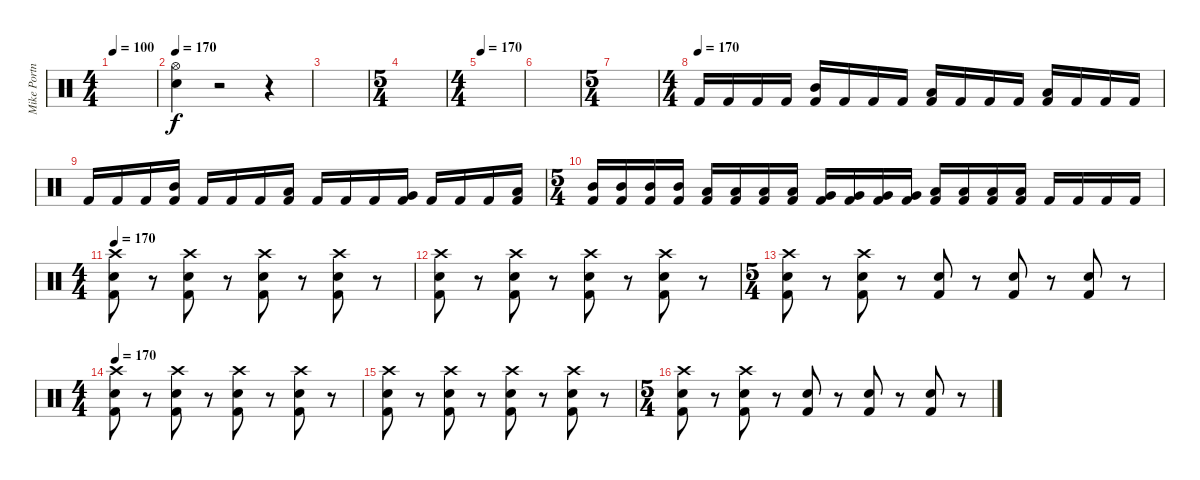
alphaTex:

\track ("Mike Portnoy" "Mike Portn") {instrument percussion}
\staff {score}
\articulation defaults
\ts (4 4)
\tempo 100
\clef neutral
\ks c
|
\tempo 170
("Hi-Hat (open)" "Electric Snare (hit)").4 r.2 r.4 |
|
\ts (5 4)
|
\ts (4 4)
\tempo 170
|
|
\ts (5 4)
|
\ts (4 4)
\tempo (170)
"Kick (hit) 2".16 "Kick (hit) 2".16 "Kick (hit) 2".16 "Kick (hit) 2".16 ("Mid Tom (hit)" "Kick (hit) 2").16 "Kick (hit) 2".16 "Kick (hit) 2".16 "Kick (hit) 2".16 ("Low Tom (hit)" "Kick (hit) 2").16 "Kick (hit) 2".16 "Kick (hit) 2".16 "Kick (hit) 2".16 ("Low Floor Tom (hit)" "Kick (hit) 2").16 "Kick (hit) 2".16 "Kick (hit) 2".16 "Kick (hit) 2".16 |
"Kick (hit) 2".16 "Kick (hit) 2".16 "Kick (hit) 2".16 ("Mid Tom (hit)" "Kick (hit) 2").16 "Kick (hit) 2".16 "Kick (hit) 2".16 "Kick (hit) 2".16 ("Low Tom (hit)" "Kick (hit) 2").16 "Kick (hit) 2".16 "Kick (hit) 2".16 "Kick (hit) 2".16 ("Very Low Tom (hit)" "Kick (hit) 2").16 "Kick (hit) 2".16 "Kick (hit) 2".16 "Kick (hit) 2".16 ("Low Floor Tom (hit)" "Kick (hit) 2").16 |
\ts (5 4)
("Mid Tom (hit)" "Kick (hit) 2").16 ("Mid Tom (hit)" "Kick (hit) 2").16 ("Mid Tom (hit)" "Kick (hit) 2").16 ("Mid Tom (hit)" "Kick (hit) 2").16 ("Low Tom (hit)" "Kick (hit) 2").16 ("Low Tom (hit)" "Kick (hit) 2").16 ("Low Tom (hit)" "Kick (hit) 2").16 ("Low Tom (hit)" "Kick (hit) 2").16 ("Very Low Tom (hit)" "Kick (hit) 2").16 ("Very Low Tom (hit)" "Kick (hit) 2").16 ("Very Low Tom (hit)" "Kick (hit) 2").16 ("Very Low Tom (hit)" "Kick (hit) 2").16 ("Low Floor Tom (hit)" "Kick (hit) 2").16 ("Low Floor Tom (hit)" "Kick (hit) 2").16 ("Low Floor Tom (hit)" "Kick (hit) 2").16 ("Low Floor Tom (hit)" "Kick (hit) 2").16 "Kick (hit) 2".16 "Kick (hit) 2".16 "Kick (hit) 2".16 "Kick (hit) 2".16 |
\ts (4 4)
\tempo 170
("Crash high (hit)" "Electric Snare (hit)" "Kick (hit) 2").8 r.8 ("Crash high (hit)" "Electric Snare (hit)" "Kick (hit) 2").8 r.8 ("Crash high (hit)" "Electric Snare (hit)" "Kick (hit) 2").8 r.8 ("Crash high (hit)" "Electric Snare (hit)" "Kick (hit) 2").8 r.8 |
("Crash high (hit)" "Electric Snare (hit)" "Kick (hit) 2").8 r.8 ("Crash high (hit)" "Electric Snare (hit)" "Kick (hit) 2").8 r.8 ("Crash high (hit)" "Electric Snare (hit)" "Kick (hit) 2").8 r.8 ("Crash high (hit)" "Electric Snare (hit)" "Kick (hit) 2").8 r.8 |
\ts (5 4)
("Crash high (hit)" "Electric Snare (hit)" "Kick (hit) 2").8 r.8 ("Crash high (hit)" "Electric Snare (hit)" "Kick (hit) 2").8 r.8 ("Electric Snare (hit)" "Kick (hit) 2").8 r.8 ("Electric Snare (hit)" "Kick (hit) 2").8 r.8 ("Electric Snare (hit)" "Kick (hit) 2").8 r.8 |
\ts (4 4)
\tempo 170
("Crash high (hit)" "Electric Snare (hit)" "Kick (hit) 2").8 r.8 ("Crash high (hit)" "Electric Snare (hit)" "Kick (hit) 2").8 r.8 ("Crash high (hit)" "Electric Snare (hit)" "Kick (hit) 2").8 r.8 ("Crash high (hit)" "Electric Snare (hit)" "Kick (hit) 2").8 r.8 |
("Crash high (hit)" "Electric Snare (hit)" "Kick (hit) 2").8 r.8 ("Crash high (hit)" "Electric Snare (hit)" "Kick (hit) 2").8 r.8 ("Crash high (hit)" "Electric Snare (hit)" "Kick (hit) 2").8 r.8 ("Crash high (hit)" "Electric Snare (hit)" "Kick (hit) 2").8 r.8 |
\ts (5 4)
("Crash high (hit)" "Electric Snare (hit)" "Kick (hit) 2").8 r.8 ("Crash high (hit)" "Electric Snare (hit)" "Kick (hit) 2").8 r.8 ("Electric Snare (hit)" "Kick (hit) 2").8 r.8 ("Electric Snare (hit)" "Kick (hit) 2").8 r.8 ("Electric Snare (hit)" "Kick (hit) 2").8 r.8
